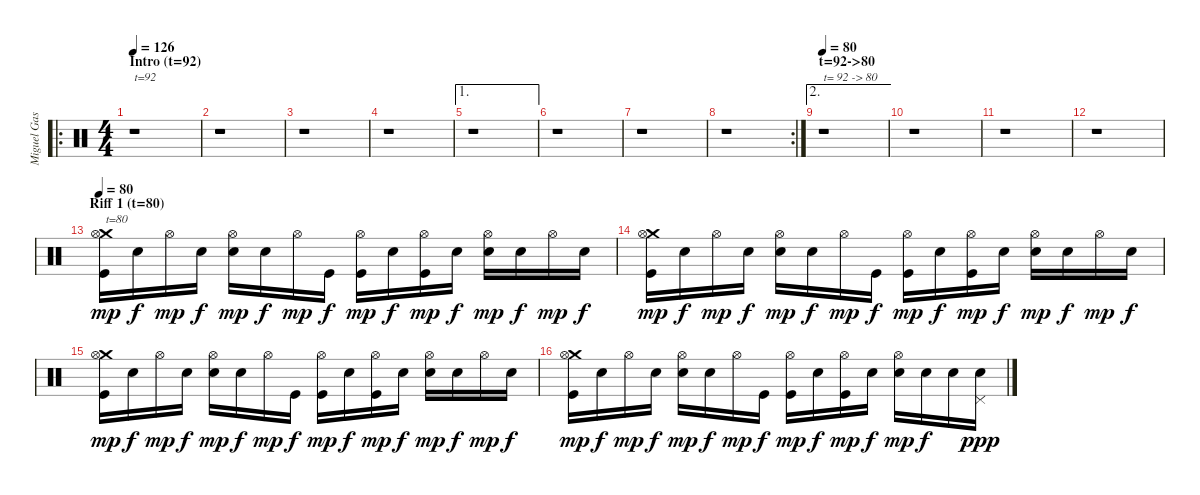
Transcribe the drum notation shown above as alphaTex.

\track ("Miguel Gaspar - Drums" "Miguel Gas") {instrument percussion}
\staff {score}
\articulation defaults
\ro
\ts (4 4)
\section ("" "Intro (t=92)")
\tempo 126
\tempo 92
\tempo 126
\clef neutral
\ks c
r.1{txt "t=92" dy mp volume 16 balance 8} |
r.1 |
r.1 |
r.1 |
\ae 1
r.1 |
r.1 |
r.1 |
\rc 2
r.1 |
\ae 2
\section ("" "t=92->80")
\tempo 80
r.1{txt "t= 92 -> 80" volume 16 balance 8} |
r.1 |
r.1 |
r.1 |
\section ("" "Riff 1 (t=80)")
\tempo 80
("Crash medium (hit)" "Hi-Hat (open)" "Kick (hit)").16{txt "t=80" volume 16 balance 8} "Snare (hit)".16{dy f} "Hi-Hat (open)".16{dy mp} "Snare (hit)".16{dy f} ("Hi-Hat (open)" "Electric Snare (hit)").16{dy mp} "Snare (hit)".16{dy f} "Hi-Hat (open)".16{dy mp} "Kick (hit)".16{dy f} ("Hi-Hat (open)" "Kick (hit)").16{dy mp} "Snare (hit)".16{dy f} ("Hi-Hat (open)" "Kick (hit)").16{dy mp} "Snare (hit)".16{dy f} ("Hi-Hat (open)" "Electric Snare (hit)").16{dy mp} "Snare (hit)".16{dy f} "Hi-Hat (open)".16{dy mp} "Snare (hit)".16{dy f} |
("Crash medium (hit)" "Hi-Hat (open)" "Kick (hit)").16{dy mp} "Snare (hit)".16{dy f} "Hi-Hat (open)".16{dy mp} "Snare (hit)".16{dy f} ("Hi-Hat (open)" "Electric Snare (hit)").16{dy mp} "Snare (hit)".16{dy f} "Hi-Hat (open)".16{dy mp} "Kick (hit)".16{dy f} ("Hi-Hat (open)" "Kick (hit)").16{dy mp} "Snare (hit)".16{dy f} ("Hi-Hat (open)" "Kick (hit)").16{dy mp} "Snare (hit)".16{dy f} ("Hi-Hat (open)" "Electric Snare (hit)").16{dy mp} "Snare (hit)".16{dy f} "Hi-Hat (open)".16{dy mp} "Snare (hit)".16{dy f} |
("Crash medium (hit)" "Hi-Hat (open)" "Kick (hit)").16{dy mp} "Snare (hit)".16{dy f} "Hi-Hat (open)".16{dy mp} "Snare (hit)".16{dy f} ("Hi-Hat (open)" "Electric Snare (hit)").16{dy mp} "Snare (hit)".16{dy f} "Hi-Hat (open)".16{dy mp} "Kick (hit)".16{dy f} ("Hi-Hat (open)" "Kick (hit)").16{dy mp} "Snare (hit)".16{dy f} ("Hi-Hat (open)" "Kick (hit)").16{dy mp} "Snare (hit)".16{dy f} ("Hi-Hat (open)" "Electric Snare (hit)").16{dy mp} "Snare (hit)".16{dy f} "Hi-Hat (open)".16{dy mp} "Snare (hit)".16{dy f} |
("Crash medium (hit)" "Hi-Hat (open)" "Kick (hit)").16{dy mp} "Snare (hit)".16{dy f} "Hi-Hat (open)".16{dy mp} "Snare (hit)".16{dy f} ("Hi-Hat (open)" "Electric Snare (hit)").16{dy mp} "Snare (hit)".16{dy f} "Hi-Hat (open)".16{dy mp} "Kick (hit)".16{dy f} ("Hi-Hat (open)" "Kick (hit)").16{dy mp} "Snare (hit)".16{dy f} ("Hi-Hat (open)" "Kick (hit)").16{dy mp} "Snare (hit)".16{dy f} ("Hi-Hat (open)" "Electric Snare (hit)").16{dy mp} "Snare (hit)".16{dy f} "Snare (hit)".16 ("Pedal Hi-Hat (hit)" "Snare (hit)").16{dy ppp}
